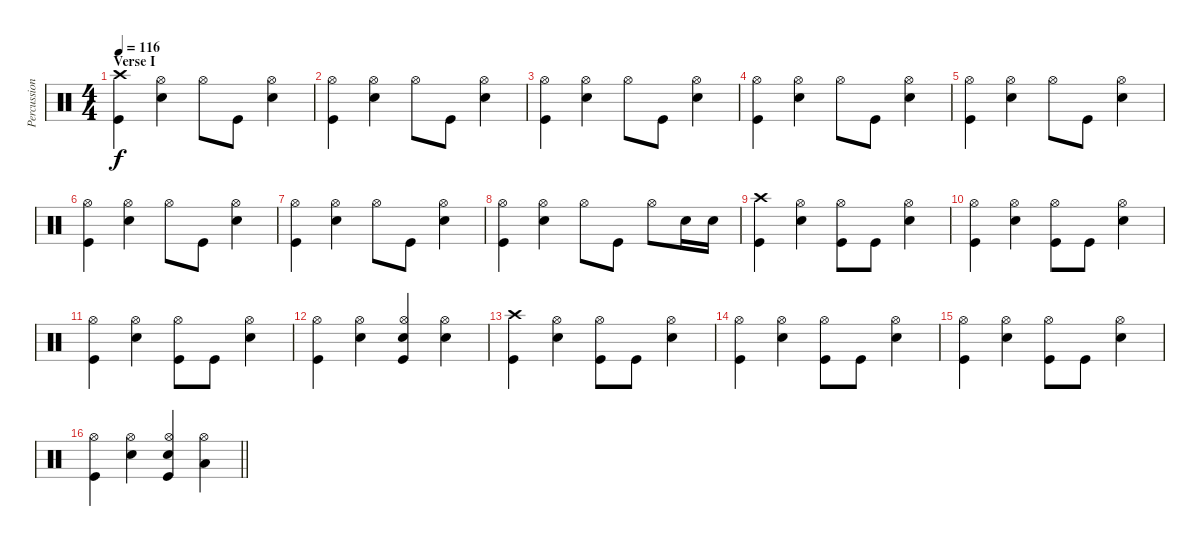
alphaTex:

\track ("Percussions" "Percussion") {instrument percussion}
\staff {score}
\articulation defaults
\ts (4 4)
\section ("" "Verse I")
\tempo 116
\clef neutral
\ks c
("Crash high (hit)" "Kick (hit)").4{dy f} ("Hi-Hat (open)" "Snare (hit) 2").4 "Hi-Hat (open)".8 "Kick (hit)".8 ("Hi-Hat (open)" "Snare (hit) 2").4 |
("Hi-Hat (open)" "Kick (hit)").4 ("Hi-Hat (open)" "Snare (hit) 2").4 "Hi-Hat (open)".8 "Kick (hit)".8 ("Hi-Hat (open)" "Snare (hit) 2").4 |
("Hi-Hat (open)" "Kick (hit)").4 ("Hi-Hat (open)" "Snare (hit) 2").4 "Hi-Hat (open)".8 "Kick (hit)".8 ("Hi-Hat (open)" "Snare (hit) 2").4 |
("Hi-Hat (open)" "Kick (hit)").4 ("Hi-Hat (open)" "Snare (hit) 2").4 "Hi-Hat (open)".8 "Kick (hit)".8 ("Hi-Hat (open)" "Snare (hit) 2").4 |
("Hi-Hat (open)" "Kick (hit)").4 ("Hi-Hat (open)" "Snare (hit) 2").4 "Hi-Hat (open)".8 "Kick (hit)".8 ("Hi-Hat (open)" "Snare (hit) 2").4 |
("Hi-Hat (open)" "Kick (hit)").4 ("Hi-Hat (open)" "Snare (hit) 2").4 "Hi-Hat (open)".8 "Kick (hit)".8 ("Hi-Hat (open)" "Snare (hit) 2").4 |
("Hi-Hat (open)" "Kick (hit)").4 ("Hi-Hat (open)" "Snare (hit) 2").4 "Hi-Hat (open)".8 "Kick (hit)".8 ("Hi-Hat (open)" "Snare (hit) 2").4 |
("Hi-Hat (open)" "Kick (hit)").4 ("Hi-Hat (open)" "Snare (hit) 2").4 "Hi-Hat (open)".8 "Kick (hit)".8 "Hi-Hat (open)".8 "Snare (hit) 2".16 "Snare (hit) 2".16 |
("Crash high (hit)" "Kick (hit)").4 ("Hi-Hat (open)" "Snare (hit) 2").4 ("Hi-Hat (open)" "Kick (hit)").8 "Kick (hit)".8 ("Hi-Hat (open)" "Snare (hit) 2").4 |
("Hi-Hat (open)" "Kick (hit)").4 ("Hi-Hat (open)" "Snare (hit) 2").4 ("Hi-Hat (open)" "Kick (hit)").8 "Kick (hit)".8 ("Hi-Hat (open)" "Snare (hit) 2").4 |
("Hi-Hat (open)" "Kick (hit)").4 ("Hi-Hat (open)" "Snare (hit) 2").4 ("Hi-Hat (open)" "Kick (hit)").8 "Kick (hit)".8 ("Hi-Hat (open)" "Snare (hit) 2").4 |
("Hi-Hat (open)" "Kick (hit)").4 ("Hi-Hat (open)" "Snare (hit) 2").4 ("Hi-Hat (open)" "Snare (hit) 2" "Kick (hit)").4 ("Hi-Hat (open)" "Snare (hit) 2").4 |
("Crash high (hit)" "Kick (hit)").4 ("Hi-Hat (open)" "Snare (hit) 2").4 ("Hi-Hat (open)" "Kick (hit)").8 "Kick (hit)".8 ("Hi-Hat (open)" "Snare (hit) 2").4 |
("Hi-Hat (open)" "Kick (hit)").4 ("Hi-Hat (open)" "Snare (hit) 2").4 ("Hi-Hat (open)" "Kick (hit)").8 "Kick (hit)".8 ("Hi-Hat (open)" "Snare (hit) 2").4 |
("Hi-Hat (open)" "Kick (hit)").4 ("Hi-Hat (open)" "Snare (hit) 2").4 ("Hi-Hat (open)" "Kick (hit)").8 "Kick (hit)".8 ("Hi-Hat (open)" "Snare (hit) 2").4 |
\barLineRight lightlight
("Hi-Hat (open)" "Kick (hit)").4 ("Hi-Hat (open)" "Snare (hit) 2").4 ("Hi-Hat (open)" "Snare (hit) 2" "Kick (hit)").4 ("Hi-Hat (open)" "Low Tom (hit)").4
